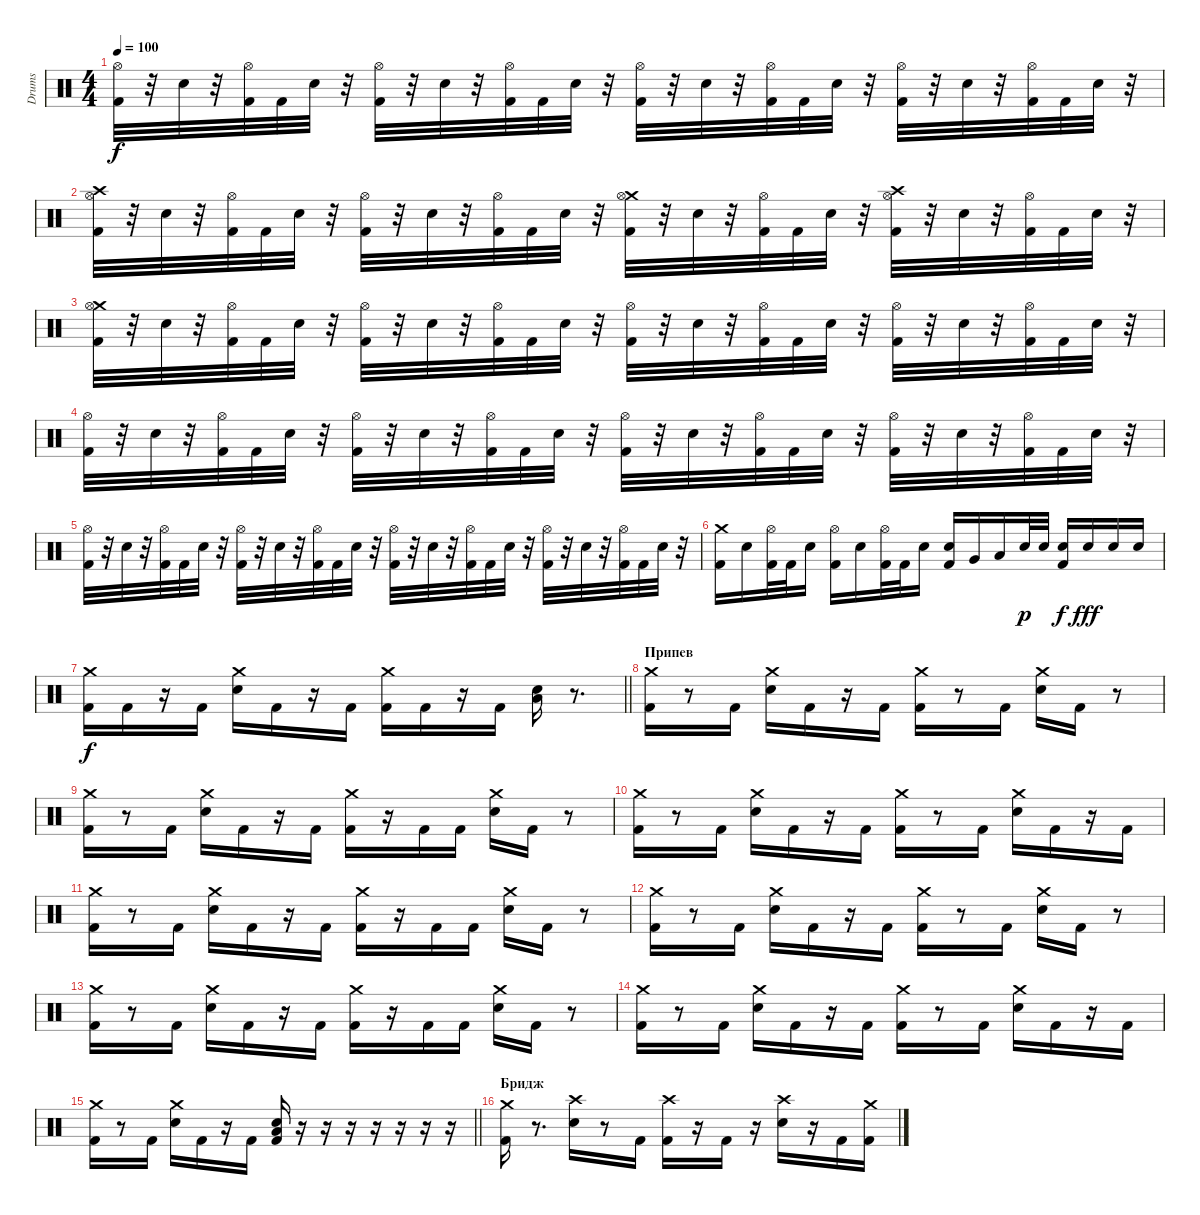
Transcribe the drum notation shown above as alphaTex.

\track ("Drums" "Drums") {instrument percussion}
\staff {score}
\articulation defaults
\ts (4 4)
\tempo 100
\clef neutral
\ks c
("Hi-Hat (open)" "Kick (hit) 2").32{dy f} r.32 "Electric Snare (hit)".32 r.32 ("Hi-Hat (open)" "Kick (hit) 2").32 "Kick (hit) 2".32 "Electric Snare (hit)".32 r.32 ("Hi-Hat (open)" "Kick (hit) 2").32 r.32 "Electric Snare (hit)".32 r.32 ("Hi-Hat (open)" "Kick (hit) 2").32 "Kick (hit) 2".32 "Electric Snare (hit)".32 r.32 ("Hi-Hat (open)" "Kick (hit) 2").32 r.32 "Electric Snare (hit)".32 r.32 ("Hi-Hat (open)" "Kick (hit) 2").32 "Kick (hit) 2".32 "Electric Snare (hit)".32 r.32 ("Hi-Hat (open)" "Kick (hit) 2").32 r.32 "Electric Snare (hit)".32 r.32 ("Hi-Hat (open)" "Kick (hit) 2").32 "Kick (hit) 2".32 "Electric Snare (hit)".32 r.32 |
("Crash high (hit)" "Hi-Hat (open)" "Kick (hit) 2").32 r.32 "Electric Snare (hit)".32 r.32 ("Hi-Hat (open)" "Kick (hit) 2").32 "Kick (hit) 2".32 "Electric Snare (hit)".32 r.32 ("Hi-Hat (open)" "Kick (hit) 2").32 r.32 "Electric Snare (hit)".32 r.32 ("Hi-Hat (open)" "Kick (hit) 2").32 "Kick (hit) 2".32 "Electric Snare (hit)".32 r.32 ("Crash medium (hit)" "Hi-Hat (open)" "Kick (hit) 2").32 r.32 "Electric Snare (hit)".32 r.32 ("Hi-Hat (open)" "Kick (hit) 2").32 "Kick (hit) 2".32 "Electric Snare (hit)".32 r.32 ("Crash high (hit)" "Hi-Hat (open)" "Kick (hit) 2").32 r.32 "Electric Snare (hit)".32 r.32 ("Hi-Hat (open)" "Kick (hit) 2").32 "Kick (hit) 2".32 "Electric Snare (hit)".32 r.32 |
("Crash medium (hit)" "Hi-Hat (open)" "Kick (hit) 2").32 r.32 "Electric Snare (hit)".32 r.32 ("Hi-Hat (open)" "Kick (hit) 2").32 "Kick (hit) 2".32 "Electric Snare (hit)".32 r.32 ("Hi-Hat (open)" "Kick (hit) 2").32 r.32 "Electric Snare (hit)".32 r.32 ("Hi-Hat (open)" "Kick (hit) 2").32 "Kick (hit) 2".32 "Electric Snare (hit)".32 r.32 ("Hi-Hat (open)" "Kick (hit) 2").32 r.32 "Electric Snare (hit)".32 r.32 ("Hi-Hat (open)" "Kick (hit) 2").32 "Kick (hit) 2".32 "Electric Snare (hit)".32 r.32 ("Hi-Hat (open)" "Kick (hit) 2").32 r.32 "Electric Snare (hit)".32 r.32 ("Hi-Hat (open)" "Kick (hit) 2").32 "Kick (hit) 2".32 "Electric Snare (hit)".32 r.32 |
("Hi-Hat (open)" "Kick (hit) 2").32 r.32 "Electric Snare (hit)".32 r.32 ("Hi-Hat (open)" "Kick (hit) 2").32 "Kick (hit) 2".32 "Electric Snare (hit)".32 r.32 ("Hi-Hat (open)" "Kick (hit) 2").32 r.32 "Electric Snare (hit)".32 r.32 ("Hi-Hat (open)" "Kick (hit) 2").32 "Kick (hit) 2".32 "Electric Snare (hit)".32 r.32 ("Hi-Hat (open)" "Kick (hit) 2").32 r.32 "Electric Snare (hit)".32 r.32 ("Hi-Hat (open)" "Kick (hit) 2").32 "Kick (hit) 2".32 "Electric Snare (hit)".32 r.32 ("Hi-Hat (open)" "Kick (hit) 2").32 r.32 "Electric Snare (hit)".32 r.32 ("Hi-Hat (open)" "Kick (hit) 2").32 "Kick (hit) 2".32 "Electric Snare (hit)".32 r.32 |
("Hi-Hat (open)" "Kick (hit) 2").32 r.32 "Electric Snare (hit)".32 r.32 ("Hi-Hat (open)" "Kick (hit) 2").32 "Kick (hit) 2".32 "Electric Snare (hit)".32 r.32 ("Hi-Hat (open)" "Kick (hit) 2").32 r.32 "Electric Snare (hit)".32 r.32 ("Hi-Hat (open)" "Kick (hit) 2").32 "Kick (hit) 2".32 "Electric Snare (hit)".32 r.32 ("Hi-Hat (open)" "Kick (hit) 2").32 r.32 "Electric Snare (hit)".32 r.32 ("Hi-Hat (open)" "Kick (hit) 2").32 "Kick (hit) 2".32 "Electric Snare (hit)".32 r.32 ("Hi-Hat (open)" "Kick (hit) 2").32 r.32 "Electric Snare (hit)".32 r.32 ("Hi-Hat (open)" "Kick (hit) 2").32 "Kick (hit) 2".32 "Electric Snare (hit)".32 r.32 |
("Crash medium (hit)" "Kick (hit) 2").16 "Electric Snare (hit)".16 ("Hi-Hat (open)" "Kick (hit) 2").32 "Kick (hit) 2".32 "Electric Snare (hit)".16 ("Hi-Hat (open)" "Kick (hit) 2").16 "Electric Snare (hit)".16 ("Hi-Hat (open)" "Kick (hit) 2").32 "Kick (hit) 2".32 "Electric Snare (hit)".16 ("Electric Snare (hit)" "Kick (hit) 2").16 "Very Low Tom (hit)".16 "Low Floor Tom (hit)".16 "Electric Snare (hit)".32{dy p} "Electric Snare (hit)".32 ("Electric Snare (hit)" "Kick (hit) 2").16{dy f} "Electric Snare (hit)".16{dy fff} "Electric Snare (hit)".16 "Electric Snare (hit)".16 |
\barLineRight lightlight
("Crash medium (hit)" "Kick (hit) 2").16{dy f} "Kick (hit) 2".16 r.16 "Kick (hit) 2".16 ("Crash medium (hit)" "Electric Snare (hit)").16 "Kick (hit) 2".16 r.16 "Kick (hit) 2".16 ("Crash medium (hit)" "Kick (hit) 2").16 "Kick (hit) 2".16 r.16 "Kick (hit) 2".16 ("Electric Snare (hit)" "Low Floor Tom (hit)").16 r.8{d} |
\section ("" "Припев")
("Crash medium (hit)" "Kick (hit) 2").16 r.8 "Kick (hit) 2".16 ("Crash medium (hit)" "Electric Snare (hit)").16 "Kick (hit) 2".16 r.16 "Kick (hit) 2".16 ("Crash medium (hit)" "Kick (hit) 2").16 r.8 "Kick (hit) 2".16 ("Crash medium (hit)" "Electric Snare (hit)").16 "Kick (hit) 2".16 r.8 |
("Crash medium (hit)" "Kick (hit) 2").16 r.8 "Kick (hit) 2".16 ("Crash medium (hit)" "Electric Snare (hit)").16 "Kick (hit) 2".16 r.16 "Kick (hit) 2".16 ("Crash medium (hit)" "Kick (hit) 2").16 r.16 "Kick (hit) 2".16 "Kick (hit) 2".16 ("Crash medium (hit)" "Electric Snare (hit)").16 "Kick (hit) 2".16 r.8 |
("Crash medium (hit)" "Kick (hit) 2").16 r.8 "Kick (hit) 2".16 ("Crash medium (hit)" "Electric Snare (hit)").16 "Kick (hit) 2".16 r.16 "Kick (hit) 2".16 ("Crash medium (hit)" "Kick (hit) 2").16 r.8 "Kick (hit) 2".16 ("Crash medium (hit)" "Electric Snare (hit)").16 "Kick (hit) 2".16 r.16 "Kick (hit) 2".16 |
("Crash medium (hit)" "Kick (hit) 2").16 r.8 "Kick (hit) 2".16 ("Crash medium (hit)" "Electric Snare (hit)").16 "Kick (hit) 2".16 r.16 "Kick (hit) 2".16 ("Crash medium (hit)" "Kick (hit) 2").16 r.16 "Kick (hit) 2".16 "Kick (hit) 2".16 ("Crash medium (hit)" "Electric Snare (hit)").16 "Kick (hit) 2".16 r.8 |
("Crash medium (hit)" "Kick (hit) 2").16 r.8 "Kick (hit) 2".16 ("Crash medium (hit)" "Electric Snare (hit)").16 "Kick (hit) 2".16 r.16 "Kick (hit) 2".16 ("Crash medium (hit)" "Kick (hit) 2").16 r.8 "Kick (hit) 2".16 ("Crash medium (hit)" "Electric Snare (hit)").16 "Kick (hit) 2".16 r.8 |
("Crash medium (hit)" "Kick (hit) 2").16 r.8 "Kick (hit) 2".16 ("Crash medium (hit)" "Electric Snare (hit)").16 "Kick (hit) 2".16 r.16 "Kick (hit) 2".16 ("Crash medium (hit)" "Kick (hit) 2").16 r.16 "Kick (hit) 2".16 "Kick (hit) 2".16 ("Crash medium (hit)" "Electric Snare (hit)").16 "Kick (hit) 2".16 r.8 |
("Crash medium (hit)" "Kick (hit) 2").16 r.8 "Kick (hit) 2".16 ("Crash medium (hit)" "Electric Snare (hit)").16 "Kick (hit) 2".16 r.16 "Kick (hit) 2".16 ("Crash medium (hit)" "Kick (hit) 2").16 r.8 "Kick (hit) 2".16 ("Crash medium (hit)" "Electric Snare (hit)").16 "Kick (hit) 2".16 r.16 "Kick (hit) 2".16 |
\barLineRight lightlight
("Crash medium (hit)" "Kick (hit) 2").16 r.8 "Kick (hit) 2".16 ("Crash medium (hit)" "Electric Snare (hit)").16 "Kick (hit) 2".16 r.16 "Kick (hit) 2".16 ("Electric Snare (hit)" "Kick (hit) 2" "Low Floor Tom (hit)").16 r.16 r.16 r.16 r.16 r.16 r.16 r.16 |
\section ("" "Бридж")
("Crash medium (hit)" "Kick (hit) 2").16 r.8{d} ("Crash high (hit)" "Electric Snare (hit)").16 r.8 "Kick (hit) 2".16 ("Crash high (hit)" "Kick (hit) 2").16 r.16 "Kick (hit) 2".16 r.16 ("Crash high (hit)" "Electric Snare (hit)").16 r.16 "Kick (hit) 2".16 ("Crash medium (hit)" "Kick (hit) 2").16
